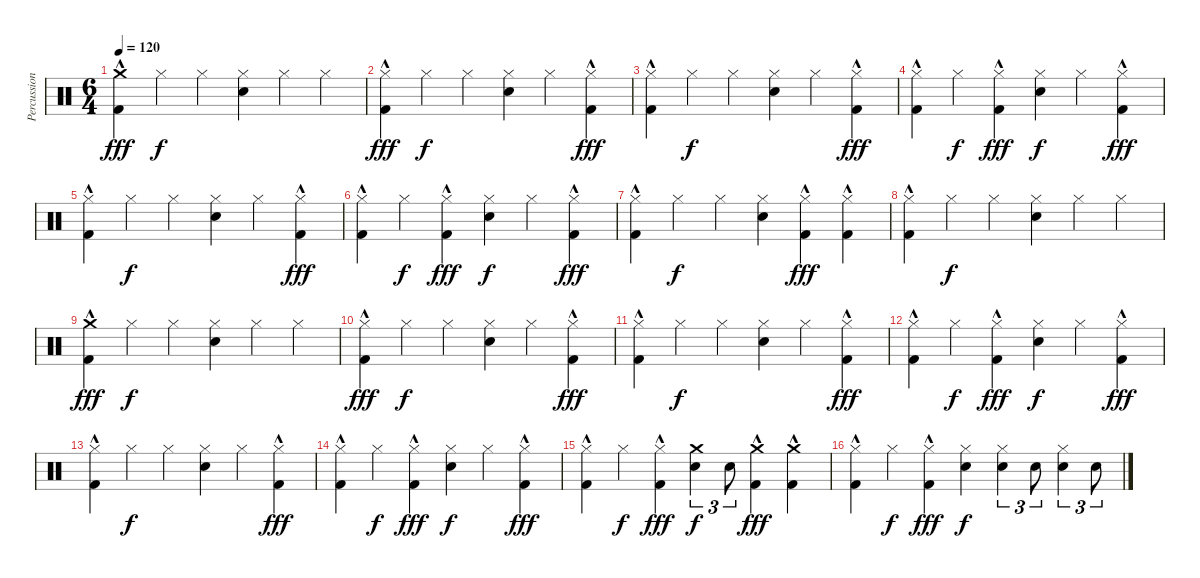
\track ("Percussion" "Percussion") {instrument percussion}
\staff {score}
\articulation defaults
\ts (6 4)
\tempo 120
\clef neutral
\ks c
("Crash medium (hit)" "Kick (hit) 2"{hac}).4{dy fff} "Hi-Hat (closed)".4{dy f} "Hi-Hat (closed)".4 ("Hi-Hat (closed)" "Snare (hit) 2").4 "Hi-Hat (closed)".4 "Hi-Hat (closed)".4 |
("Hi-Hat (closed)" "Kick (hit) 2"{hac}).4{dy fff} "Hi-Hat (closed)".4{dy f} "Hi-Hat (closed)".4 ("Hi-Hat (closed)" "Snare (hit) 2").4 "Hi-Hat (closed)".4 ("Hi-Hat (closed)" "Kick (hit) 2"{hac}).4{dy fff} |
("Hi-Hat (closed)" "Kick (hit) 2"{hac}).4 "Hi-Hat (closed)".4{dy f} "Hi-Hat (closed)".4 ("Hi-Hat (closed)" "Snare (hit) 2").4 "Hi-Hat (closed)".4 ("Hi-Hat (closed)" "Kick (hit) 2"{hac}).4{dy fff} |
("Hi-Hat (closed)" "Kick (hit) 2"{hac}).4 "Hi-Hat (closed)".4{dy f} ("Hi-Hat (closed)" "Kick (hit) 2"{hac}).4{dy fff} ("Hi-Hat (closed)" "Snare (hit) 2").4{dy f} "Hi-Hat (closed)".4 ("Hi-Hat (closed)" "Kick (hit) 2"{hac}).4{dy fff} |
("Hi-Hat (closed)" "Kick (hit) 2"{hac}).4 "Hi-Hat (closed)".4{dy f} "Hi-Hat (closed)".4 ("Hi-Hat (closed)" "Snare (hit) 2").4 "Hi-Hat (closed)".4 ("Hi-Hat (closed)" "Kick (hit) 2"{hac}).4{dy fff} |
("Hi-Hat (closed)" "Kick (hit) 2"{hac}).4 "Hi-Hat (closed)".4{dy f} ("Hi-Hat (closed)" "Kick (hit) 2"{hac}).4{dy fff} ("Hi-Hat (closed)" "Snare (hit) 2").4{dy f} "Hi-Hat (closed)".4 ("Hi-Hat (closed)" "Kick (hit) 2"{hac}).4{dy fff} |
("Hi-Hat (closed)" "Kick (hit) 2"{hac}).4 "Hi-Hat (closed)".4{dy f} "Hi-Hat (closed)".4 ("Hi-Hat (closed)" "Snare (hit) 2").4 ("Hi-Hat (closed)" "Kick (hit) 2"{hac}).4{dy fff} ("Hi-Hat (closed)" "Kick (hit) 2"{hac}).4 |
("Hi-Hat (closed)" "Kick (hit) 2"{hac}).4 "Hi-Hat (closed)".4{dy f} "Hi-Hat (closed)".4 ("Hi-Hat (closed)" "Snare (hit) 2").4 "Hi-Hat (closed)".4 "Hi-Hat (closed)".4 |
("Crash medium (hit)" "Kick (hit) 2"{hac}).4{dy fff} "Hi-Hat (closed)".4{dy f} "Hi-Hat (closed)".4 ("Hi-Hat (closed)" "Snare (hit) 2").4 "Hi-Hat (closed)".4 "Hi-Hat (closed)".4 |
("Hi-Hat (closed)" "Kick (hit) 2"{hac}).4{dy fff} "Hi-Hat (closed)".4{dy f} "Hi-Hat (closed)".4 ("Hi-Hat (closed)" "Snare (hit) 2").4 "Hi-Hat (closed)".4 ("Hi-Hat (closed)" "Kick (hit) 2"{hac}).4{dy fff} |
("Hi-Hat (closed)" "Kick (hit) 2"{hac}).4 "Hi-Hat (closed)".4{dy f} "Hi-Hat (closed)".4 ("Hi-Hat (closed)" "Snare (hit) 2").4 "Hi-Hat (closed)".4 ("Hi-Hat (closed)" "Kick (hit) 2"{hac}).4{dy fff} |
("Hi-Hat (closed)" "Kick (hit) 2"{hac}).4 "Hi-Hat (closed)".4{dy f} ("Hi-Hat (closed)" "Kick (hit) 2"{hac}).4{dy fff} ("Hi-Hat (closed)" "Snare (hit) 2").4{dy f} "Hi-Hat (closed)".4 ("Hi-Hat (closed)" "Kick (hit) 2"{hac}).4{dy fff} |
("Hi-Hat (closed)" "Kick (hit) 2"{hac}).4 "Hi-Hat (closed)".4{dy f} "Hi-Hat (closed)".4 ("Hi-Hat (closed)" "Snare (hit) 2").4 "Hi-Hat (closed)".4 ("Hi-Hat (closed)" "Kick (hit) 2"{hac}).4{dy fff} |
("Hi-Hat (closed)" "Kick (hit) 2"{hac}).4 "Hi-Hat (closed)".4{dy f} ("Hi-Hat (closed)" "Kick (hit) 2"{hac}).4{dy fff} ("Hi-Hat (closed)" "Snare (hit) 2").4{dy f} "Hi-Hat (closed)".4 ("Hi-Hat (closed)" "Kick (hit) 2"{hac}).4{dy fff} |
("Hi-Hat (closed)" "Kick (hit) 2"{hac}).4 "Hi-Hat (closed)".4{dy f} ("Hi-Hat (closed)" "Kick (hit) 2"{hac}).4{dy fff} ("Crash medium (hit)" "Snare (hit) 2").4{tu (3 2) dy f} "Snare (hit) 2".8{tu (3 2)} ("Crash medium (hit)" "Kick (hit) 2"{hac}).4{dy fff} ("Crash medium (hit)" "Kick (hit) 2"{hac}).4 |
("Hi-Hat (closed)" "Kick (hit) 2"{hac}).4 "Hi-Hat (closed)".4{dy f} ("Hi-Hat (closed)" "Kick (hit) 2"{hac}).4{dy fff} ("Hi-Hat (closed)" "Snare (hit) 2").4{dy f} ("Hi-Hat (closed)" "Snare (hit) 2").4{tu (3 2)} "Snare (hit) 2".8{tu (3 2)} ("Hi-Hat (closed)" "Snare (hit) 2").4{tu (3 2)} "Snare (hit) 2".8{tu (3 2)}
